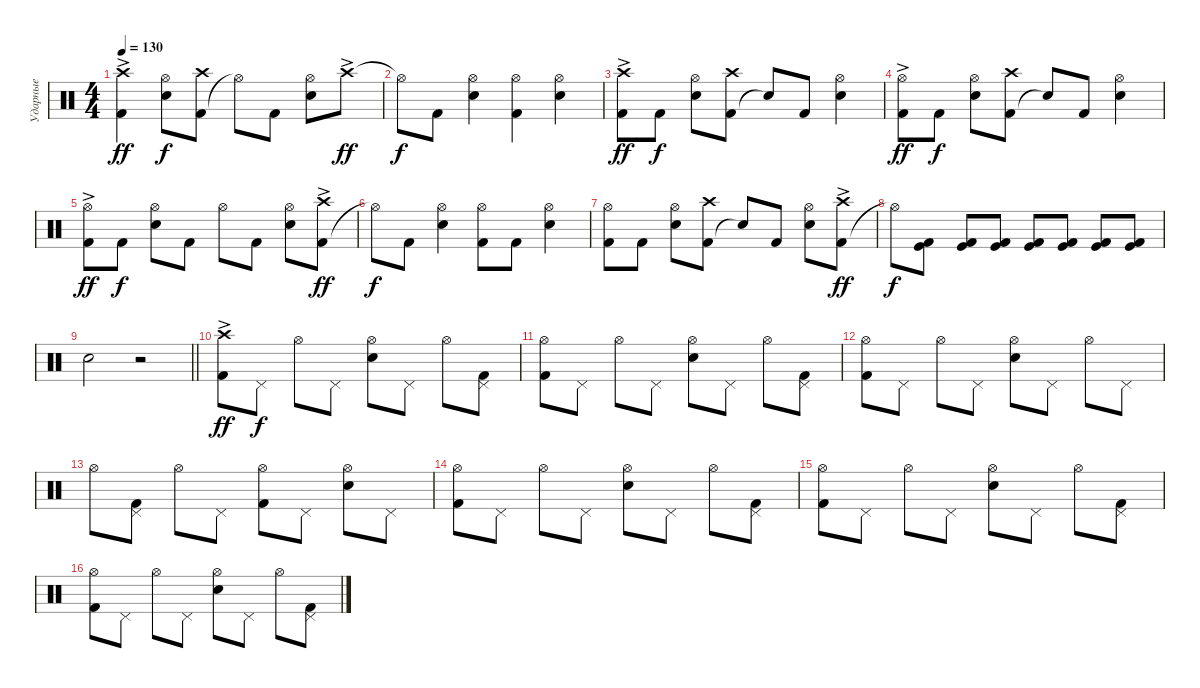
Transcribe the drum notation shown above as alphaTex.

\track ("Ударные" "Ударные") {instrument percussion}
\staff
\articulation defaults
\ts (4 4)
\tempo 130
\clef neutral
\ks c
("Kick (hit) 2" "Crash high (hit)"{ac}).4{dy ff} ("Snare (hit) 2" "Hi-Hat (open)").8{dy f} ("Kick (hit) 2" "Crash high (hit)").8 "Hi-Hat (open)"{t}.8 "Kick (hit) 2".8 ("Snare (hit) 2" "Hi-Hat (open)").8 "Crash high (hit)"{ac}.8{dy ff} |
"Hi-Hat (open)"{t}.8{dy f} "Kick (hit) 2".8 ("Snare (hit) 2" "Hi-Hat (open)").4 ("Kick (hit) 2" "Hi-Hat (open)").4 ("Snare (hit) 2" "Hi-Hat (open)").4 |
("Kick (hit) 2" "Crash high (hit)"{ac}).8{dy ff} "Kick (hit) 2".8{dy f} ("Snare (hit) 2" "Hi-Hat (open)").8 ("Kick (hit) 2" "Crash high (hit)").8 "Snare (hit)"{t}.8 "Kick (hit) 2".8 ("Snare (hit) 2" "Hi-Hat (open)").4 |
("Kick (hit) 2" "Hi-Hat (open)"{ac}).8{dy ff} "Kick (hit) 2".8{dy f} ("Snare (hit) 2" "Hi-Hat (open)").8 ("Kick (hit) 2" "Crash high (hit)").8 "Snare (hit)"{t}.8 "Kick (hit) 2".8 ("Snare (hit) 2" "Hi-Hat (open)").4 |
("Kick (hit) 2" "Hi-Hat (open)"{ac}).8{dy ff} "Kick (hit) 2".8{dy f} ("Snare (hit) 2" "Hi-Hat (open)").8 "Kick (hit) 2".8 "Hi-Hat (open)".8 "Kick (hit) 2".8 ("Snare (hit) 2" "Hi-Hat (open)").8 ("Kick (hit) 2" "Crash high (hit)"{ac}).8{dy ff} |
"Hi-Hat (open)"{t}.8{dy f} "Kick (hit) 2".8 ("Snare (hit) 2" "Hi-Hat (open)").4 ("Kick (hit) 2" "Hi-Hat (open)").8 "Kick (hit) 2".8 ("Snare (hit) 2" "Hi-Hat (open)").4 |
("Kick (hit) 2" "Hi-Hat (open)").8 "Kick (hit) 2".8 ("Snare (hit) 2" "Hi-Hat (open)").8 ("Kick (hit) 2" "Crash high (hit)").8 "Snare (hit)"{t}.8 "Kick (hit) 2".8 ("Snare (hit) 2" "Hi-Hat (open)").8 ("Kick (hit) 2" "Crash high (hit)"{ac}).8{dy ff} |
"Hi-Hat (open)"{t}.8{dy f} ("Kick (hit) 2" "Kick (hit)").8 ("Kick (hit) 2" "Kick (hit)").8 ("Kick (hit) 2" "Kick (hit)").8 ("Kick (hit) 2" "Kick (hit)").8 ("Kick (hit) 2" "Kick (hit)").8 ("Kick (hit) 2" "Kick (hit)").8 ("Kick (hit) 2" "Kick (hit)").8 |
\barLineRight lightlight "Snare (hit) 2".2
r.2 |
("Kick (hit) 2" "Crash high (hit)"{ac}).8{dy ff} "Pedal Hi-Hat (hit)".8{dy f} "Hi-Hat (open)".8 "Pedal Hi-Hat (hit)".8 ("Snare (hit) 2" "Hi-Hat (open)").8 "Pedal Hi-Hat (hit)".8 "Hi-Hat (open)".8 ("Kick (hit) 2" "Pedal Hi-Hat (hit)").8 |
("Kick (hit) 2" "Hi-Hat (open)").8 "Pedal Hi-Hat (hit)".8 "Hi-Hat (open)".8 "Pedal Hi-Hat (hit)".8 ("Snare (hit) 2" "Hi-Hat (open)").8 "Pedal Hi-Hat (hit)".8 "Hi-Hat (open)".8 ("Kick (hit) 2" "Pedal Hi-Hat (hit)").8 |
("Kick (hit) 2" "Hi-Hat (open)").8 "Pedal Hi-Hat (hit)".8 "Hi-Hat (open)".8 "Pedal Hi-Hat (hit)".8 ("Snare (hit) 2" "Hi-Hat (open)").8 "Pedal Hi-Hat (hit)".8 "Hi-Hat (open)".8 "Pedal Hi-Hat (hit)".8 |
"Hi-Hat (open)".8 ("Kick (hit) 2" "Pedal Hi-Hat (hit)").8 "Hi-Hat (open)".8 "Pedal Hi-Hat (hit)".8 ("Kick (hit) 2" "Hi-Hat (open)").8 "Pedal Hi-Hat (hit)".8 ("Snare (hit) 2" "Hi-Hat (open)").8 "Pedal Hi-Hat (hit)".8 |
("Kick (hit) 2" "Hi-Hat (open)").8 "Pedal Hi-Hat (hit)".8 "Hi-Hat (open)".8 "Pedal Hi-Hat (hit)".8 ("Snare (hit) 2" "Hi-Hat (open)").8 "Pedal Hi-Hat (hit)".8 "Hi-Hat (open)".8 ("Kick (hit) 2" "Pedal Hi-Hat (hit)").8 |
("Kick (hit) 2" "Hi-Hat (open)").8 "Pedal Hi-Hat (hit)".8 "Hi-Hat (open)".8 "Pedal Hi-Hat (hit)".8 ("Snare (hit) 2" "Hi-Hat (open)").8 "Pedal Hi-Hat (hit)".8 "Hi-Hat (open)".8 ("Kick (hit) 2" "Pedal Hi-Hat (hit)").8 |
("Kick (hit) 2" "Hi-Hat (open)").8 "Pedal Hi-Hat (hit)".8 "Hi-Hat (open)".8 "Pedal Hi-Hat (hit)".8 ("Snare (hit) 2" "Hi-Hat (open)").8 "Pedal Hi-Hat (hit)".8 "Hi-Hat (open)".8 ("Kick (hit) 2" "Pedal Hi-Hat (hit)").8
